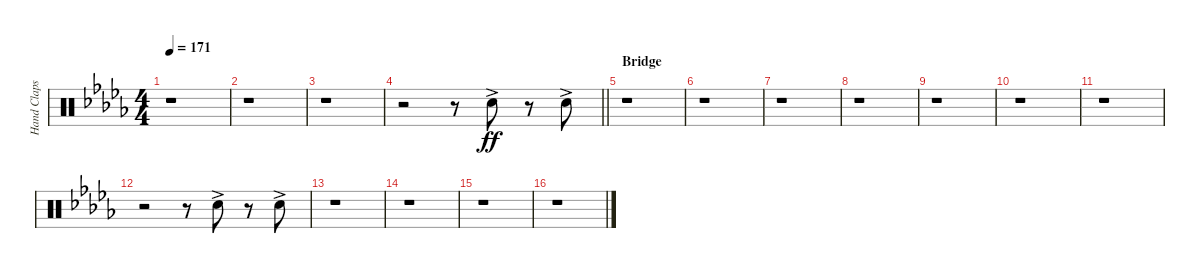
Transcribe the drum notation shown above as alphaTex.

\track ("Hand Claps" "Hand Claps") {instrument percussion}
\staff {score}
\articulation defaults
\ts (4 4)
\tempo 171
\clef neutral
\ks db
r.1{dy ff} |
r.1 |
r.1 |
\barLineRight lightlight
r.2 r.8 "Hand Clap (hit)"{ac}.8 r.8 "Hand Clap (hit)"{ac}.8 |
\section ("" "Bridge")
r.1 |
r.1 |
r.1 |
r.1 |
r.1 |
r.1 |
r.1 |
r.2 r.8 "Hand Clap (hit)"{ac}.8 r.8 "Hand Clap (hit)"{ac}.8 |
r.1 |
r.1 |
r.1 |
r.1
